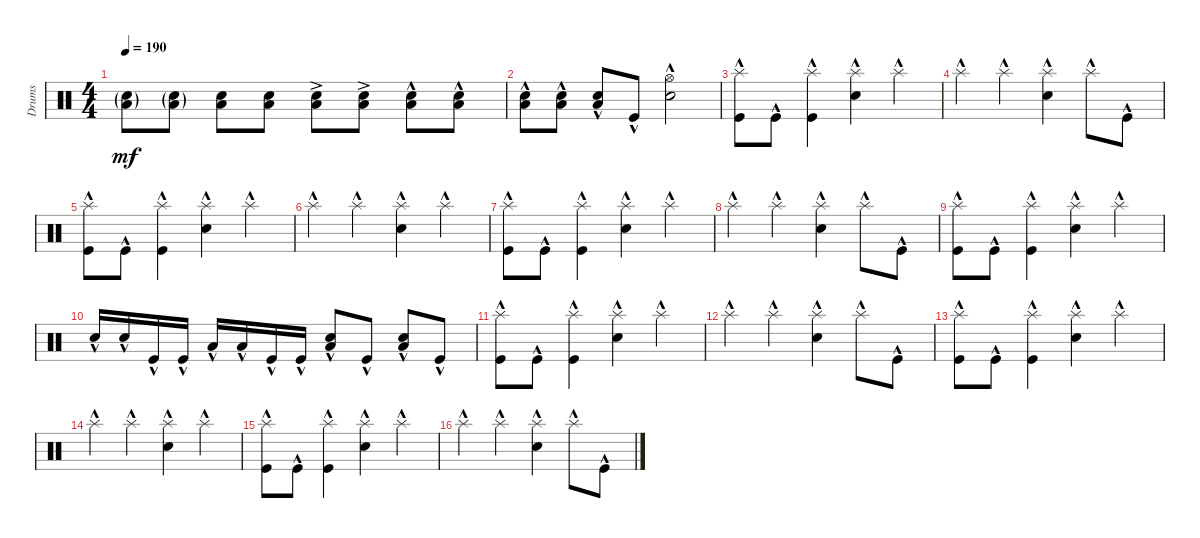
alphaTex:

\track ("Drums" "Drums") {instrument percussion}
\staff {score}
\articulation defaults
\ts (4 4)
\tempo 190
\clef neutral
\ks c
("Low Floor Tom (hit)"{g} "Snare (hit) 2"{g}).8{dy mf} ("Low Floor Tom (hit)"{g} "Snare (hit) 2"{g}).8 ("Low Floor Tom (hit)" "Snare (hit) 2").8 ("Low Floor Tom (hit)" "Snare (hit) 2").8 ("Low Floor Tom (hit)"{ac} "Snare (hit) 2"{ac}).8 ("Low Floor Tom (hit)"{ac} "Snare (hit) 2"{ac}).8 ("Low Floor Tom (hit)"{hac} "Snare (hit) 2"{hac}).8 ("Low Floor Tom (hit)"{hac} "Snare (hit) 2"{hac}).8 |
("Low Floor Tom (hit)"{hac} "Snare (hit) 2"{hac}).8 ("Low Floor Tom (hit)"{hac} "Snare (hit) 2"{hac}).8 ("Low Floor Tom (hit)"{hac} "Snare (hit) 2"{hac}).8 "Kick (hit)"{hac}.8 ("Snare (hit) 2"{hac} "Hi-Hat (open)"{hac}).2 |
("Kick (hit)"{hac} "Splash (hit)"{hac}).8 "Kick (hit)"{hac}.8 ("Kick (hit)"{hac} "Splash (hit)"{hac}).4 ("Splash (hit)"{hac} "Snare (hit) 2"{hac}).4 "Splash (hit)"{hac}.4 |
"Splash (hit)"{hac}.4 "Splash (hit)"{hac}.4 ("Splash (hit)"{hac} "Snare (hit) 2"{hac}).4 "Splash (hit)"{hac}.8 "Kick (hit)"{hac}.8 |
("Kick (hit)"{hac} "Splash (hit)"{hac}).8 "Kick (hit)"{hac}.8 ("Kick (hit)"{hac} "Splash (hit)"{hac}).4 ("Splash (hit)"{hac} "Snare (hit) 2"{hac}).4 "Splash (hit)"{hac}.4 |
"Splash (hit)"{hac}.4 "Splash (hit)"{hac}.4 ("Splash (hit)"{hac} "Snare (hit) 2"{hac}).4 "Splash (hit)"{hac}.4 |
("Kick (hit)"{hac} "Splash (hit)"{hac}).8 "Kick (hit)"{hac}.8 ("Kick (hit)"{hac} "Splash (hit)"{hac}).4 ("Splash (hit)"{hac} "Snare (hit) 2"{hac}).4 "Splash (hit)"{hac}.4 |
"Splash (hit)"{hac}.4 "Splash (hit)"{hac}.4 ("Splash (hit)"{hac} "Snare (hit) 2"{hac}).4 "Splash (hit)"{hac}.8 "Kick (hit)"{hac}.8 |
("Kick (hit)"{hac} "Splash (hit)"{hac}).8 "Kick (hit)"{hac}.8 ("Kick (hit)"{hac} "Splash (hit)"{hac}).4 ("Splash (hit)"{hac} "Snare (hit) 2"{hac}).4 "Splash (hit)"{hac}.4 |
"Snare (hit) 2"{hac}.16 "Snare (hit) 2"{hac}.16 "Kick (hit)"{hac}.16 "Kick (hit)"{hac}.16 "Low Tom (hit)"{hac}.16 "Low Tom (hit)"{hac}.16 "Kick (hit)"{hac}.16 "Kick (hit)"{hac}.16 ("Low Floor Tom (hit)"{hac} "Snare (hit) 2"{hac}).8 "Kick (hit)"{hac}.8 ("Low Floor Tom (hit)"{hac} "Snare (hit) 2"{hac}).8 "Kick (hit)"{hac}.8 |
("Kick (hit)"{hac} "Splash (hit)"{hac}).8 "Kick (hit)"{hac}.8 ("Kick (hit)"{hac} "Splash (hit)"{hac}).4 ("Splash (hit)"{hac} "Snare (hit) 2"{hac}).4 "Splash (hit)"{hac}.4 |
"Splash (hit)"{hac}.4 "Splash (hit)"{hac}.4 ("Splash (hit)"{hac} "Snare (hit) 2"{hac}).4 "Splash (hit)"{hac}.8 "Kick (hit)"{hac}.8 |
("Kick (hit)"{hac} "Splash (hit)"{hac}).8 "Kick (hit)"{hac}.8 ("Kick (hit)"{hac} "Splash (hit)"{hac}).4 ("Splash (hit)"{hac} "Snare (hit) 2"{hac}).4 "Splash (hit)"{hac}.4 |
"Splash (hit)"{hac}.4 "Splash (hit)"{hac}.4 ("Splash (hit)"{hac} "Snare (hit) 2"{hac}).4 "Splash (hit)"{hac}.4 |
("Kick (hit)"{hac} "Splash (hit)"{hac}).8 "Kick (hit)"{hac}.8 ("Kick (hit)"{hac} "Splash (hit)"{hac}).4 ("Splash (hit)"{hac} "Snare (hit) 2"{hac}).4 "Splash (hit)"{hac}.4 |
"Splash (hit)"{hac}.4 "Splash (hit)"{hac}.4 ("Splash (hit)"{hac} "Snare (hit) 2"{hac}).4 "Splash (hit)"{hac}.8 "Kick (hit)"{hac}.8
